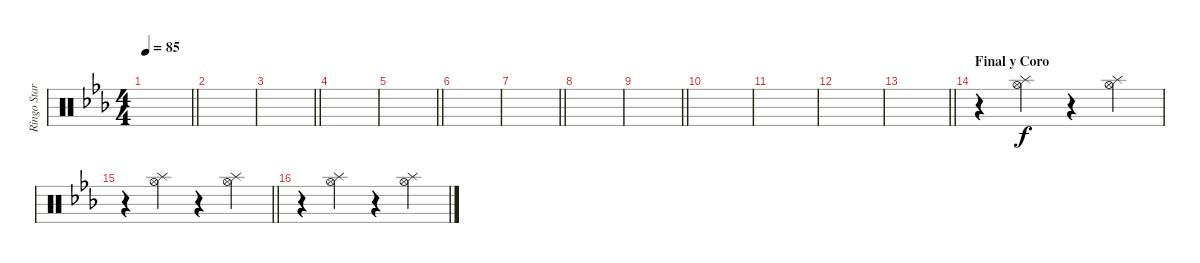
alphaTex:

\track ("Ringo Star" "Ringo Star") {instrument percussion}
\staff {score}
\articulation defaults
\ts (4 4)
\tempo 85
\clef neutral
\barLineRight lightlight
\ks cminor
|
|
\barLineRight lightlight
|
|
\barLineRight lightlight
|
|
\barLineRight lightlight
|
|
\barLineRight lightlight
|
|
|
|
\barLineRight lightlight
|
\section ("" "Final y Coro")
r.4{balance 0} ("Hi-Hat (open)" "Splash (hit)").4 r.4 ("Hi-Hat (open)" "Splash (hit)").4 |
\barLineRight lightlight
r.4 ("Hi-Hat (open)" "Splash (hit)").4 r.4 ("Hi-Hat (open)" "Splash (hit)").4 |
r.4 ("Hi-Hat (open)" "Splash (hit)").4 r.4 ("Hi-Hat (open)" "Splash (hit)").4
